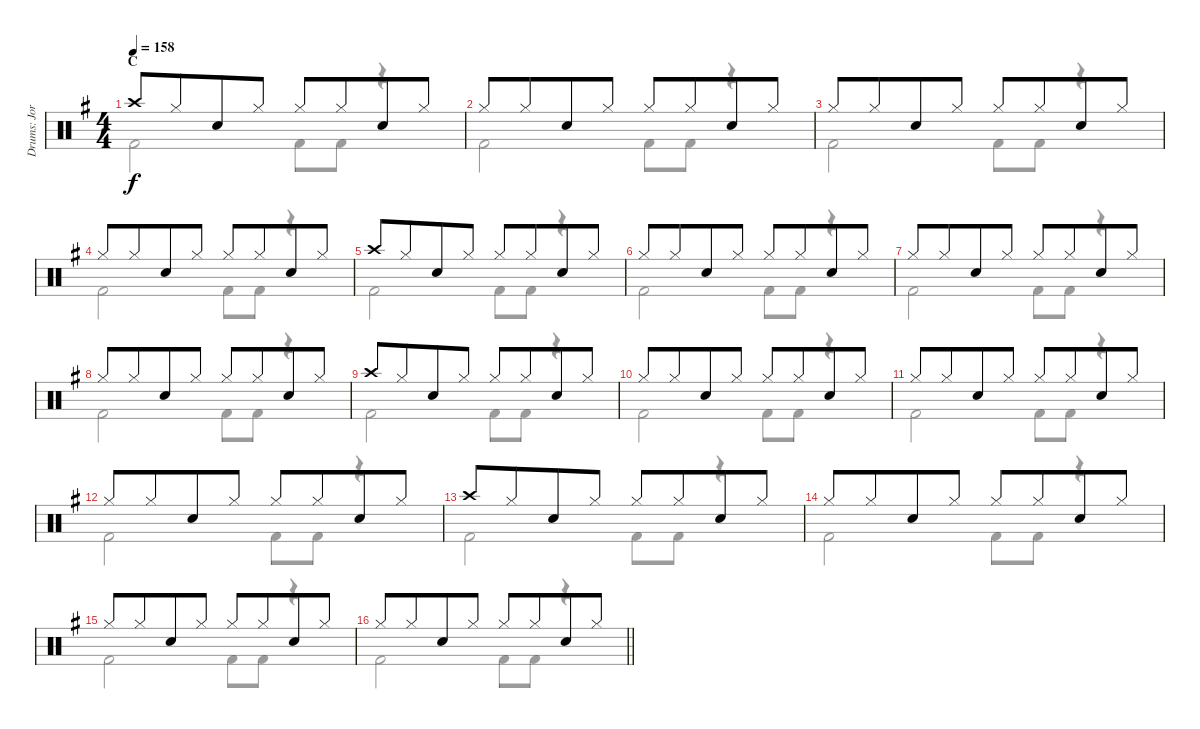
\track ("Drums: Jorg" "Drums: Jor") {instrument percussion}
\staff {score}
\articulation defaults
\voice
\ts (4 4)
\section ("" "C")
\tempo 158
\clef neutral
\ks g "Crash high (hit)".8{dy f} "Hi-Hat (closed)".8{beam merge} "Snare (hit) 2".8 "Hi-Hat (closed)".8 "Hi-Hat (closed)".8 "Hi-Hat (closed)".8{beam merge} "Snare (hit) 2".8 "Hi-Hat (closed)".8
|
"Hi-Hat (closed)".8 "Hi-Hat (closed)".8{beam merge} "Snare (hit) 2".8 "Hi-Hat (closed)".8 "Hi-Hat (closed)".8 "Hi-Hat (closed)".8{beam merge} "Snare (hit) 2".8 "Hi-Hat (closed)".8 |
"Hi-Hat (closed)".8 "Hi-Hat (closed)".8{beam merge} "Snare (hit) 2".8 "Hi-Hat (closed)".8 "Hi-Hat (closed)".8 "Hi-Hat (closed)".8{beam merge} "Snare (hit) 2".8 "Hi-Hat (closed)".8 |
"Hi-Hat (closed)".8 "Hi-Hat (closed)".8{beam merge} "Snare (hit) 2".8 "Hi-Hat (closed)".8 "Hi-Hat (closed)".8 "Hi-Hat (closed)".8{beam merge} "Snare (hit) 2".8 "Hi-Hat (closed)".8 |
"Crash high (hit)".8 "Hi-Hat (closed)".8{beam merge} "Snare (hit) 2".8 "Hi-Hat (closed)".8 "Hi-Hat (closed)".8 "Hi-Hat (closed)".8{beam merge} "Snare (hit) 2".8 "Hi-Hat (closed)".8 |
"Hi-Hat (closed)".8 "Hi-Hat (closed)".8{beam merge} "Snare (hit) 2".8 "Hi-Hat (closed)".8 "Hi-Hat (closed)".8 "Hi-Hat (closed)".8{beam merge} "Snare (hit) 2".8 "Hi-Hat (closed)".8 |
"Hi-Hat (closed)".8 "Hi-Hat (closed)".8{beam merge} "Snare (hit) 2".8 "Hi-Hat (closed)".8 "Hi-Hat (closed)".8 "Hi-Hat (closed)".8{beam merge} "Snare (hit) 2".8 "Hi-Hat (closed)".8 |
"Hi-Hat (closed)".8 "Hi-Hat (closed)".8{beam merge} "Snare (hit) 2".8 "Hi-Hat (closed)".8 "Hi-Hat (closed)".8 "Hi-Hat (closed)".8{beam merge} "Snare (hit) 2".8 "Hi-Hat (closed)".8 |
"Crash high (hit)".8 "Hi-Hat (closed)".8{beam merge} "Snare (hit) 2".8 "Hi-Hat (closed)".8 "Hi-Hat (closed)".8 "Hi-Hat (closed)".8{beam merge} "Snare (hit) 2".8 "Hi-Hat (closed)".8 |
"Hi-Hat (closed)".8 "Hi-Hat (closed)".8{beam merge} "Snare (hit) 2".8 "Hi-Hat (closed)".8 "Hi-Hat (closed)".8 "Hi-Hat (closed)".8{beam merge} "Snare (hit) 2".8 "Hi-Hat (closed)".8 |
"Hi-Hat (closed)".8 "Hi-Hat (closed)".8{beam merge} "Snare (hit) 2".8 "Hi-Hat (closed)".8 "Hi-Hat (closed)".8 "Hi-Hat (closed)".8{beam merge} "Snare (hit) 2".8 "Hi-Hat (closed)".8 |
"Hi-Hat (closed)".8 "Hi-Hat (closed)".8{beam merge} "Snare (hit) 2".8 "Hi-Hat (closed)".8 "Hi-Hat (closed)".8 "Hi-Hat (closed)".8{beam merge} "Snare (hit) 2".8 "Hi-Hat (closed)".8 |
"Crash high (hit)".8 "Hi-Hat (closed)".8{beam merge} "Snare (hit) 2".8 "Hi-Hat (closed)".8 "Hi-Hat (closed)".8 "Hi-Hat (closed)".8{beam merge} "Snare (hit) 2".8 "Hi-Hat (closed)".8 |
"Hi-Hat (closed)".8 "Hi-Hat (closed)".8{beam merge} "Snare (hit) 2".8 "Hi-Hat (closed)".8 "Hi-Hat (closed)".8 "Hi-Hat (closed)".8{beam merge} "Snare (hit) 2".8 "Hi-Hat (closed)".8 |
"Hi-Hat (closed)".8 "Hi-Hat (closed)".8{beam merge} "Snare (hit) 2".8 "Hi-Hat (closed)".8 "Hi-Hat (closed)".8 "Hi-Hat (closed)".8{beam merge} "Snare (hit) 2".8 "Hi-Hat (closed)".8 |
\barLineRight lightlight "Hi-Hat (closed)".8 "Hi-Hat (closed)".8{beam merge} "Snare (hit) 2".8 "Hi-Hat (closed)".8 "Hi-Hat (closed)".8 "Hi-Hat (closed)".8{beam merge} "Snare (hit) 2".8 "Hi-Hat (closed)".8
\voice
\clef neutral
\ottava regular
\simile none
\ks g "Kick (hit) 2".2{dy f} "Kick (hit) 2".8 "Kick (hit) 2".8
r.4 |
"Kick (hit) 2".2 "Kick (hit) 2".8 "Kick (hit) 2".8 r.4 |
"Kick (hit) 2".2 "Kick (hit) 2".8 "Kick (hit) 2".8 r.4 |
"Kick (hit) 2".2 "Kick (hit) 2".8 "Kick (hit) 2".8 r.4 |
"Kick (hit) 2".2 "Kick (hit) 2".8 "Kick (hit) 2".8 r.4 |
"Kick (hit) 2".2 "Kick (hit) 2".8 "Kick (hit) 2".8 r.4 |
"Kick (hit) 2".2 "Kick (hit) 2".8 "Kick (hit) 2".8 r.4 |
"Kick (hit) 2".2 "Kick (hit) 2".8 "Kick (hit) 2".8 r.4 |
"Kick (hit) 2".2 "Kick (hit) 2".8 "Kick (hit) 2".8 r.4 |
"Kick (hit) 2".2 "Kick (hit) 2".8 "Kick (hit) 2".8 r.4 |
"Kick (hit) 2".2 "Kick (hit) 2".8 "Kick (hit) 2".8 r.4 |
"Kick (hit) 2".2 "Kick (hit) 2".8 "Kick (hit) 2".8 r.4 |
"Kick (hit) 2".2 "Kick (hit) 2".8 "Kick (hit) 2".8 r.4 |
"Kick (hit) 2".2 "Kick (hit) 2".8 "Kick (hit) 2".8 r.4 |
"Kick (hit) 2".2 "Kick (hit) 2".8 "Kick (hit) 2".8 r.4 |
\barLineRight lightlight "Kick (hit) 2".2 "Kick (hit) 2".8 "Kick (hit) 2".8
r.4
